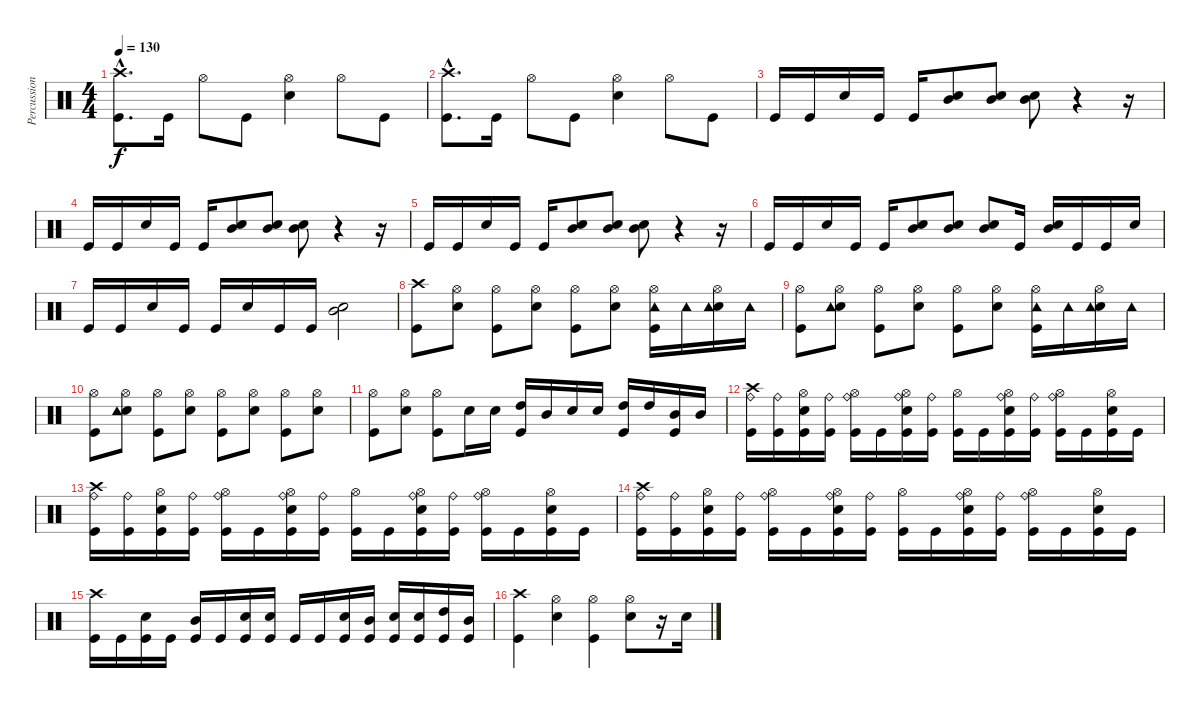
\track ("Percussion" "Percussion") {instrument percussion}
\staff {score}
\articulation defaults
\ts (4 4)
\tempo 130
\clef neutral
\ks c
("Crash high (hit)"{hac} "Kick (hit)"{hac}).8{d dy f} "Kick (hit)".16 "Hi-Hat (open)".8 "Kick (hit)".8 ("Hi-Hat (open)" "Snare (hit) 2").4 "Hi-Hat (open)".8 "Kick (hit)".8 |
("Crash high (hit)"{hac} "Kick (hit)"{hac}).8{d} "Kick (hit)".16 "Hi-Hat (open)".8 "Kick (hit)".8 ("Hi-Hat (open)" "Snare (hit) 2").4 "Hi-Hat (open)".8 "Kick (hit)".8 |
"Kick (hit)".16 "Kick (hit)".16 "Snare (hit) 2".16 "Kick (hit)".16 "Kick (hit)".16 ("Snare (hit) 2" "Mid Tom (hit)").8 ("Snare (hit) 2" "Mid Tom (hit)").8 ("Snare (hit) 2" "Mid Tom (hit)").8 r.4 r.16 |
"Kick (hit)".16 "Kick (hit)".16 "Snare (hit) 2".16 "Kick (hit)".16 "Kick (hit)".16 ("Snare (hit) 2" "Mid Tom (hit)").8 ("Snare (hit) 2" "Mid Tom (hit)").8 ("Snare (hit) 2" "Mid Tom (hit)").8 r.4 r.16 |
"Kick (hit)".16 "Kick (hit)".16 "Snare (hit) 2".16 "Kick (hit)".16 "Kick (hit)".16 ("Snare (hit) 2" "Mid Tom (hit)").8 ("Snare (hit) 2" "Mid Tom (hit)").8 ("Snare (hit) 2" "Mid Tom (hit)").8 r.4 r.16 |
"Kick (hit)".16 "Kick (hit)".16 "Snare (hit) 2".16 "Kick (hit)".16 "Kick (hit)".16 ("Snare (hit) 2" "Mid Tom (hit)").8 ("Snare (hit) 2" "Mid Tom (hit)").8 ("Snare (hit) 2" "Mid Tom (hit)").8 "Kick (hit)".16 ("Snare (hit) 2" "Mid Tom (hit)").16 "Kick (hit)".16 "Kick (hit)".16 "Snare (hit) 2".16 |
"Kick (hit)".16 "Kick (hit)".16 "Snare (hit) 2".16 "Kick (hit)".16 "Kick (hit)".16 "Snare (hit) 2".16 "Kick (hit)".16 "Kick (hit)".16 ("Snare (hit) 2" "Mid Tom (hit)").2 |
("Crash high (hit)" "Kick (hit)").8 ("Hi-Hat (open)" "Snare (hit) 2").8 ("Hi-Hat (open)" "Kick (hit)").8 ("Hi-Hat (open)" "Snare (hit) 2").8 ("Hi-Hat (open)" "Kick (hit)").8 ("Hi-Hat (open)" "Snare (hit) 2").8 ("Hi-Hat (open)" "Kick (hit)" "Tambourine (hit)").16 "Tambourine (hit)".16 ("Hi-Hat (open)" "Snare (hit) 2" "Tambourine (hit)").16 "Tambourine (hit)".16 |
("Hi-Hat (open)" "Kick (hit)").8 ("Hi-Hat (open)" "Snare (hit) 2" "Tambourine (hit)").8 ("Hi-Hat (open)" "Kick (hit)").8 ("Hi-Hat (open)" "Snare (hit) 2").8 ("Hi-Hat (open)" "Kick (hit)").8 ("Hi-Hat (open)" "Snare (hit) 2").8 ("Hi-Hat (open)" "Kick (hit)" "Tambourine (hit)").16 "Tambourine (hit)".16 ("Hi-Hat (open)" "Snare (hit) 2" "Tambourine (hit)").16 "Tambourine (hit)".16 |
("Hi-Hat (open)" "Kick (hit)").8 ("Hi-Hat (open)" "Snare (hit) 2" "Tambourine (hit)").8 ("Hi-Hat (open)" "Kick (hit)").8 ("Hi-Hat (open)" "Snare (hit) 2").8 ("Hi-Hat (open)" "Kick (hit)").8 ("Hi-Hat (open)" "Snare (hit) 2").8 ("Hi-Hat (open)" "Kick (hit)").8 ("Hi-Hat (open)" "Snare (hit) 2").8 |
("Hi-Hat (open)" "Kick (hit)").8 ("Hi-Hat (open)" "Snare (hit) 2").8 ("Hi-Hat (open)" "Kick (hit)").8 "Snare (hit) 2".16 "Snare (hit) 2".16 ("High Tom (hit)" "Kick (hit)").16 "Mid Tom (hit)".16 "Snare (hit) 2".16 "Snare (hit) 2".16 ("High Tom (hit)" "Kick (hit)").16 "High Tom (hit)".16 ("Mid Tom (hit)" "Kick (hit)").16 "Mid Tom (hit)".16 |
("Ride (bell)" "Crash high (hit)" "Kick (hit)").16 ("Ride (bell)" "Kick (hit)").16 ("Hi-Hat (open)" "Snare (hit) 2" "Kick (hit)").16 ("Ride (bell)" "Kick (hit)").16 ("Ride (bell)" "Hi-Hat (open)" "Kick (hit)").16 "Kick (hit)".16 ("Ride (bell)" "Hi-Hat (open)" "Snare (hit) 2" "Kick (hit)").16 ("Ride (bell)" "Kick (hit)").16 ("Hi-Hat (open)" "Kick (hit)").16 "Kick (hit)".16 ("Ride (bell)" "Hi-Hat (open)" "Snare (hit) 2" "Kick (hit)").16 ("Ride (bell)" "Kick (hit)").16 ("Ride (bell)" "Hi-Hat (open)" "Kick (hit)").16 "Kick (hit)".16 ("Hi-Hat (open)" "Snare (hit) 2" "Kick (hit)").16 "Kick (hit)".16 |
("Ride (bell)" "Crash high (hit)" "Kick (hit)").16 ("Ride (bell)" "Kick (hit)").16 ("Hi-Hat (open)" "Snare (hit) 2" "Kick (hit)").16 ("Ride (bell)" "Kick (hit)").16 ("Ride (bell)" "Hi-Hat (open)" "Kick (hit)").16 "Kick (hit)".16 ("Ride (bell)" "Hi-Hat (open)" "Snare (hit) 2" "Kick (hit)").16 ("Ride (bell)" "Kick (hit)").16 ("Hi-Hat (open)" "Kick (hit)").16 "Kick (hit)".16 ("Ride (bell)" "Hi-Hat (open)" "Snare (hit) 2" "Kick (hit)").16 ("Ride (bell)" "Kick (hit)").16 ("Ride (bell)" "Hi-Hat (open)" "Kick (hit)").16 "Kick (hit)".16 ("Hi-Hat (open)" "Snare (hit) 2" "Kick (hit)").16 "Kick (hit)".16 |
("Ride (bell)" "Crash high (hit)" "Kick (hit)").16 ("Ride (bell)" "Kick (hit)").16 ("Hi-Hat (open)" "Snare (hit) 2" "Kick (hit)").16 ("Ride (bell)" "Kick (hit)").16 ("Ride (bell)" "Hi-Hat (open)" "Kick (hit)").16 "Kick (hit)".16 ("Ride (bell)" "Hi-Hat (open)" "Snare (hit) 2" "Kick (hit)").16 ("Ride (bell)" "Kick (hit)").16 ("Hi-Hat (open)" "Kick (hit)").16 "Kick (hit)".16 ("Ride (bell)" "Hi-Hat (open)" "Snare (hit) 2" "Kick (hit)").16 ("Ride (bell)" "Kick (hit)").16 ("Ride (bell)" "Hi-Hat (open)" "Kick (hit)").16 "Kick (hit)".16 ("Hi-Hat (open)" "Snare (hit) 2" "Kick (hit)").16 "Kick (hit)".16 |
("Crash high (hit)" "Kick (hit)").16 "Kick (hit)".16 ("Snare (hit) 2" "Kick (hit)").16 "Kick (hit)".16 ("Mid Tom (hit)" "Kick (hit)").16 "Kick (hit)".16 ("Snare (hit) 2" "Kick (hit)").16 ("Snare (hit) 2" "Kick (hit)").16 "Kick (hit)".16 "Kick (hit)".16 ("Snare (hit) 2" "Kick (hit)").16 ("Mid Tom (hit)" "Kick (hit)").16 ("Snare (hit) 2" "Kick (hit)").16 ("Snare (hit) 2" "Kick (hit)").16 ("High Tom (hit)" "Kick (hit)").16 ("Mid Tom (hit)" "Kick (hit)").16 |
("Crash high (hit)" "Kick (hit)").4 ("Hi-Hat (open)" "Snare (hit) 2").4 ("Hi-Hat (open)" "Kick (hit)").4 ("Hi-Hat (open)" "Snare (hit) 2").8 r.16 "Snare (hit) 2".16
